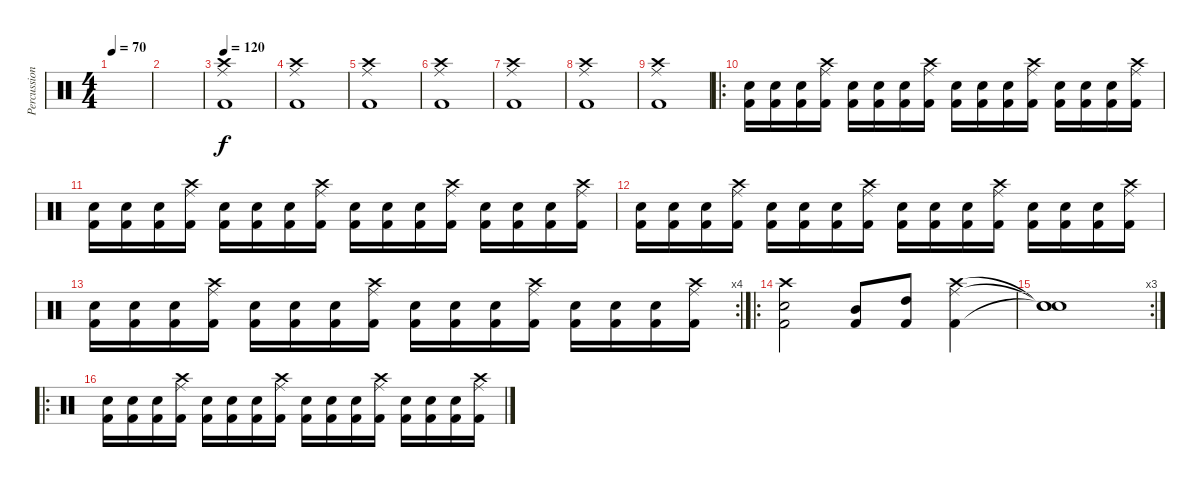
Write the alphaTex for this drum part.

\track ("Percussion" "Percussion") {instrument percussion}
\staff {score}
\articulation defaults
\ts (4 4)
\tempo 70
\clef neutral
\ks c
|
|
\tempo 120
("Ride (middle)" "Crash high (hit)" "Kick (hit) 2").1 |
("Ride (middle)" "Crash high (hit)" "Kick (hit) 2").1 |
("Ride (middle)" "Crash high (hit)" "Kick (hit) 2").1 |
("Ride (middle)" "Crash high (hit)" "Kick (hit) 2").1 |
("Ride (middle)" "Crash high (hit)" "Kick (hit) 2").1 |
("Ride (middle)" "Crash high (hit)" "Kick (hit) 2").1 |
("Ride (middle)" "Crash high (hit)" "Kick (hit) 2").1 |
\ro
("Electric Snare (hit)" "Kick (hit) 2").16 ("Electric Snare (hit)" "Kick (hit) 2").16 ("Electric Snare (hit)" "Kick (hit) 2").16 ("Ride (middle)" "Crash high (hit)" "Kick (hit) 2").16 ("Electric Snare (hit)" "Kick (hit) 2").16 ("Electric Snare (hit)" "Kick (hit) 2").16 ("Electric Snare (hit)" "Kick (hit) 2").16 ("Ride (middle)" "Crash high (hit)" "Kick (hit) 2").16 ("Electric Snare (hit)" "Kick (hit) 2").16 ("Electric Snare (hit)" "Kick (hit) 2").16 ("Electric Snare (hit)" "Kick (hit) 2").16 ("Ride (middle)" "Crash high (hit)" "Kick (hit) 2").16 ("Electric Snare (hit)" "Kick (hit) 2").16 ("Electric Snare (hit)" "Kick (hit) 2").16 ("Electric Snare (hit)" "Kick (hit) 2").16 ("Ride (middle)" "Crash high (hit)" "Kick (hit) 2").16 |
("Electric Snare (hit)" "Kick (hit) 2").16 ("Electric Snare (hit)" "Kick (hit) 2").16 ("Electric Snare (hit)" "Kick (hit) 2").16 ("Ride (middle)" "Crash high (hit)" "Kick (hit) 2").16 ("Electric Snare (hit)" "Kick (hit) 2").16 ("Electric Snare (hit)" "Kick (hit) 2").16 ("Electric Snare (hit)" "Kick (hit) 2").16 ("Ride (middle)" "Crash high (hit)" "Kick (hit) 2").16 ("Electric Snare (hit)" "Kick (hit) 2").16 ("Electric Snare (hit)" "Kick (hit) 2").16 ("Electric Snare (hit)" "Kick (hit) 2").16 ("Ride (middle)" "Crash high (hit)" "Kick (hit) 2").16 ("Electric Snare (hit)" "Kick (hit) 2").16 ("Electric Snare (hit)" "Kick (hit) 2").16 ("Electric Snare (hit)" "Kick (hit) 2").16 ("Ride (middle)" "Crash high (hit)" "Kick (hit) 2").16 |
("Electric Snare (hit)" "Kick (hit) 2").16 ("Electric Snare (hit)" "Kick (hit) 2").16 ("Electric Snare (hit)" "Kick (hit) 2").16 ("Ride (middle)" "Crash high (hit)" "Kick (hit) 2").16 ("Electric Snare (hit)" "Kick (hit) 2").16 ("Electric Snare (hit)" "Kick (hit) 2").16 ("Electric Snare (hit)" "Kick (hit) 2").16 ("Ride (middle)" "Crash high (hit)" "Kick (hit) 2").16 ("Electric Snare (hit)" "Kick (hit) 2").16 ("Electric Snare (hit)" "Kick (hit) 2").16 ("Electric Snare (hit)" "Kick (hit) 2").16 ("Ride (middle)" "Crash high (hit)" "Kick (hit) 2").16 ("Electric Snare (hit)" "Kick (hit) 2").16 ("Electric Snare (hit)" "Kick (hit) 2").16 ("Electric Snare (hit)" "Kick (hit) 2").16 ("Ride (middle)" "Crash high (hit)" "Kick (hit) 2").16 |
\rc 4
("Electric Snare (hit)" "Kick (hit) 2").16 ("Electric Snare (hit)" "Kick (hit) 2").16 ("Electric Snare (hit)" "Kick (hit) 2").16 ("Ride (middle)" "Crash high (hit)" "Kick (hit) 2").16 ("Electric Snare (hit)" "Kick (hit) 2").16 ("Electric Snare (hit)" "Kick (hit) 2").16 ("Electric Snare (hit)" "Kick (hit) 2").16 ("Ride (middle)" "Crash high (hit)" "Kick (hit) 2").16 ("Electric Snare (hit)" "Kick (hit) 2").16 ("Electric Snare (hit)" "Kick (hit) 2").16 ("Electric Snare (hit)" "Kick (hit) 2").16 ("Ride (middle)" "Crash high (hit)" "Kick (hit) 2").16 ("Electric Snare (hit)" "Kick (hit) 2").16 ("Electric Snare (hit)" "Kick (hit) 2").16 ("Electric Snare (hit)" "Kick (hit) 2").16 ("Ride (middle)" "Crash high (hit)" "Kick (hit) 2").16 |
\ro
("Crash high (hit)" "Electric Snare (hit)" "Kick (hit) 2").2 ("Mid Tom (hit)" "Kick (hit) 2").8 ("High Tom (hit)" "Kick (hit) 2").8 ("Ride (middle)" "Crash high (hit)" "Kick (hit) 2").4 |
\rc 3
("Snare (hit)"{t} "Snare (hit)"{t} "Snare (hit)"{t}).1 |
\ro
("Electric Snare (hit)" "Kick (hit) 2").16 ("Electric Snare (hit)" "Kick (hit) 2").16 ("Electric Snare (hit)" "Kick (hit) 2").16 ("Ride (middle)" "Crash high (hit)" "Kick (hit) 2").16 ("Electric Snare (hit)" "Kick (hit) 2").16 ("Electric Snare (hit)" "Kick (hit) 2").16 ("Electric Snare (hit)" "Kick (hit) 2").16 ("Ride (middle)" "Crash high (hit)" "Kick (hit) 2").16 ("Electric Snare (hit)" "Kick (hit) 2").16 ("Electric Snare (hit)" "Kick (hit) 2").16 ("Electric Snare (hit)" "Kick (hit) 2").16 ("Ride (middle)" "Crash high (hit)" "Kick (hit) 2").16 ("Electric Snare (hit)" "Kick (hit) 2").16 ("Electric Snare (hit)" "Kick (hit) 2").16 ("Electric Snare (hit)" "Kick (hit) 2").16 ("Ride (middle)" "Crash high (hit)" "Kick (hit) 2").16
